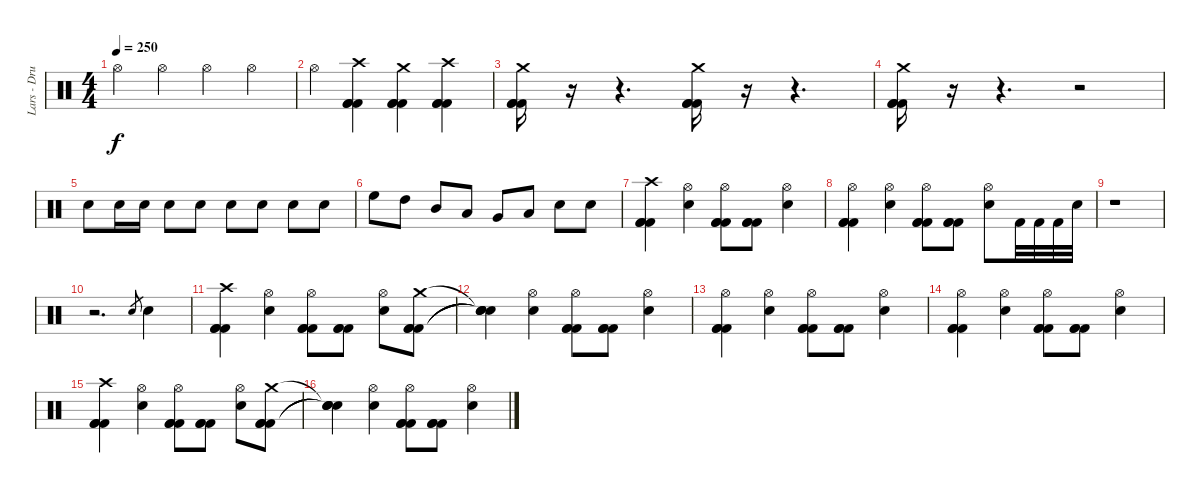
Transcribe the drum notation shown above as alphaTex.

\track ("Lars - Drums" "Lars - Dru") {instrument percussion}
\staff {score}
\articulation defaults
\ts (4 4)
\tempo 250
\clef neutral
\ks c "Hi-Hat (open)".4{dy f} "Hi-Hat (open)".4 "Hi-Hat (open)".4 "Hi-Hat (open)".4
|
"Hi-Hat (open)".4 ("Crash high (hit)" "Kick (hit) 2" "Kick (hit) 2" "Kick (hit) 2").4 ("Crash medium (hit)" "Kick (hit) 2" "Kick (hit) 2" "Kick (hit) 2").4 ("Crash high (hit)" "Kick (hit) 2" "Kick (hit) 2" "Kick (hit) 2").4 |
("Crash medium (hit)" "Kick (hit) 2" "Kick (hit) 2" "Kick (hit) 2").16 r.16 r.4{d} ("Crash medium (hit)" "Kick (hit) 2" "Kick (hit) 2" "Kick (hit) 2").16 r.16 r.4{d} |
("Crash medium (hit)" "Kick (hit) 2" "Kick (hit) 2" "Kick (hit) 2").16 r.16 r.4{d} r.2 |
"Snare (hit) 2".8 "Snare (hit) 2".16 "Snare (hit) 2".16 "Snare (hit) 2".8 "Snare (hit) 2".8 "Snare (hit) 2".8 "Snare (hit) 2".8 "Snare (hit) 2".8 "Snare (hit) 2".8 |
"High Floor Tom (hit)".8 "High Tom (hit)".8 "Mid Tom (hit)".8 "Low Tom (hit)".8 "Very Low Tom (hit)".8 "Low Floor Tom (hit)".8 "Snare (hit) 2".8 "Snare (hit) 2".8 |
("Crash high (hit)" "Kick (hit) 2" "Kick (hit) 2" "Kick (hit) 2").4 ("Hi-Hat (open)" "Snare (hit) 2").4 ("Hi-Hat (open)" "Kick (hit) 2" "Kick (hit) 2" "Kick (hit) 2").8 ("Kick (hit) 2" "Kick (hit) 2" "Kick (hit) 2").8 ("Hi-Hat (open)" "Snare (hit) 2").4 |
("Hi-Hat (open)" "Kick (hit) 2" "Kick (hit) 2" "Kick (hit) 2").4 ("Hi-Hat (open)" "Snare (hit) 2").4 ("Hi-Hat (open)" "Kick (hit) 2" "Kick (hit) 2" "Kick (hit) 2").8 ("Kick (hit) 2" "Kick (hit) 2" "Kick (hit) 2").8 ("Hi-Hat (open)" "Snare (hit) 2").8 "Kick (hit) 2".32 "Kick (hit) 2".32 "Kick (hit) 2".32 "Snare (hit) 2".32 |
r.1 |
r.2{d} "Snare (hit) 2".8{gr} "Snare (hit) 2".4 |
("Crash high (hit)" "Kick (hit) 2" "Kick (hit) 2" "Kick (hit) 2").4 ("Hi-Hat (open)" "Snare (hit) 2").4 ("Hi-Hat (open)" "Kick (hit) 2" "Kick (hit) 2" "Kick (hit) 2").8 ("Kick (hit) 2" "Kick (hit) 2" "Kick (hit) 2").8 ("Hi-Hat (open)" "Snare (hit) 2").8 ("Crash medium (hit)" "Kick (hit) 2" "Kick (hit) 2" "Kick (hit) 2").8 |
("Snare (hit)"{t} "Snare (hit)"{t} "Snare (hit)"{t} "Snare (hit)"{t}).4 ("Hi-Hat (open)" "Snare (hit) 2").4 ("Hi-Hat (open)" "Kick (hit) 2" "Kick (hit) 2" "Kick (hit) 2").8 ("Kick (hit) 2" "Kick (hit) 2" "Kick (hit) 2").8 ("Hi-Hat (open)" "Snare (hit) 2").4 |
("Hi-Hat (open)" "Kick (hit) 2" "Kick (hit) 2" "Kick (hit) 2").4 ("Hi-Hat (open)" "Snare (hit) 2").4 ("Hi-Hat (open)" "Kick (hit) 2" "Kick (hit) 2" "Kick (hit) 2").8 ("Kick (hit) 2" "Kick (hit) 2" "Kick (hit) 2").8 ("Hi-Hat (open)" "Snare (hit) 2").4 |
("Hi-Hat (open)" "Kick (hit) 2" "Kick (hit) 2" "Kick (hit) 2").4 ("Hi-Hat (open)" "Snare (hit) 2").4 ("Hi-Hat (open)" "Kick (hit) 2" "Kick (hit) 2" "Kick (hit) 2").8 ("Kick (hit) 2" "Kick (hit) 2" "Kick (hit) 2").8 ("Hi-Hat (open)" "Snare (hit) 2").4 |
("Crash high (hit)" "Kick (hit) 2" "Kick (hit) 2" "Kick (hit) 2").4 ("Hi-Hat (open)" "Snare (hit) 2").4 ("Hi-Hat (open)" "Kick (hit) 2" "Kick (hit) 2" "Kick (hit) 2").8 ("Kick (hit) 2" "Kick (hit) 2" "Kick (hit) 2").8 ("Hi-Hat (open)" "Snare (hit) 2").8 ("Crash medium (hit)" "Kick (hit) 2" "Kick (hit) 2" "Kick (hit) 2").8 |
("Snare (hit)"{t} "Snare (hit)"{t} "Snare (hit)"{t} "Snare (hit)"{t}).4 ("Hi-Hat (open)" "Snare (hit) 2").4 ("Hi-Hat (open)" "Kick (hit) 2" "Kick (hit) 2" "Kick (hit) 2").8 ("Kick (hit) 2" "Kick (hit) 2" "Kick (hit) 2").8 ("Hi-Hat (open)" "Snare (hit) 2").4
